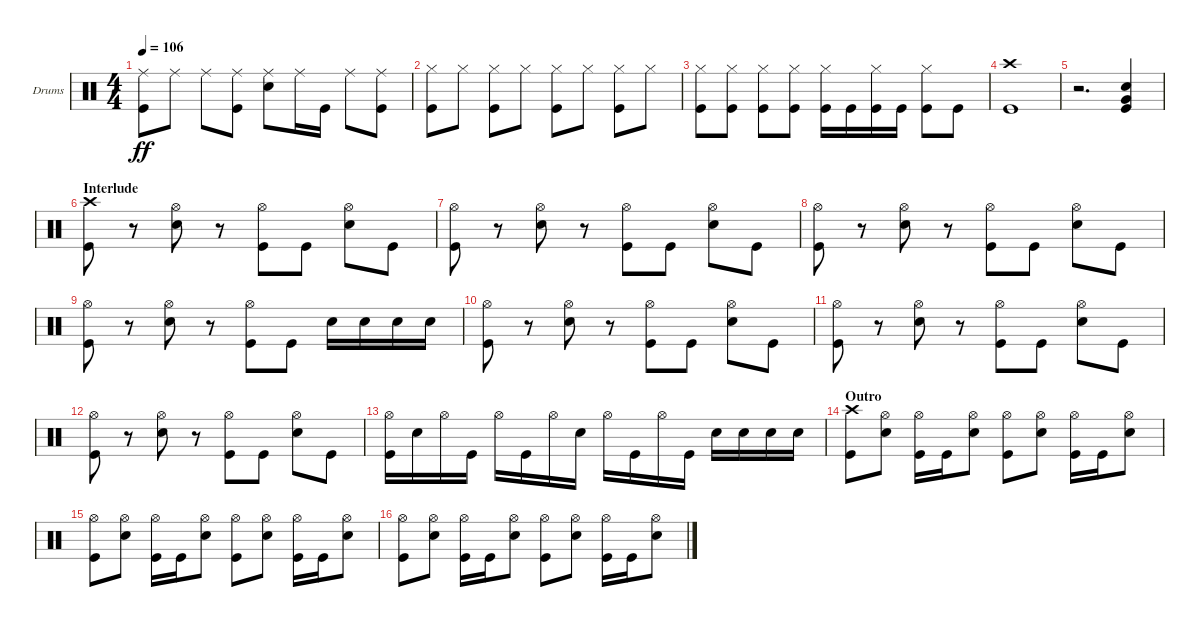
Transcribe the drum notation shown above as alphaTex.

\defaultSystemsLayout 4
\bracketExtendMode groupsimilarinstruments
\firstSystemTrackNameOrientation horizontal
\otherSystemsTrackNameOrientation horizontal
\track ("Drumkit" "Drums") {instrument percussion}
\staff {score}
\articulation defaults
\ts (4 4)
\tempo 106
\clef neutral
\scale
0.333333
\ks c
("Kick (hit)" "Ride (middle)").8{dy ff} "Ride (middle)".8 "Ride (middle)".8 ("Ride (middle)" "Kick (hit)").8 ("Ride (middle)" "Snare (hit) 2").8 "Ride (middle)".16 "Kick (hit)".16 "Ride (middle)".8 ("Kick (hit)" "Ride (middle)").8 |
\scale
0.333333 ("Kick (hit)" "Hi-Hat (closed)").8 "Hi-Hat (closed)".8 ("Kick (hit)" "Hi-Hat (closed)").8 "Hi-Hat (closed)".8 ("Kick (hit)" "Hi-Hat (closed)").8 "Hi-Hat (closed)".8 ("Kick (hit)" "Hi-Hat (closed)").8 "Hi-Hat (closed)".8 |
\scale
0.333333 ("Kick (hit)" "Hi-Hat (closed)").8 ("Hi-Hat (closed)" "Kick (hit)").8 ("Kick (hit)" "Hi-Hat (closed)").8 ("Hi-Hat (closed)" "Kick (hit)").8 ("Kick (hit)" "Hi-Hat (closed)").16 "Kick (hit)".16 ("Kick (hit)" "Hi-Hat (closed)").16 "Kick (hit)".16 ("Kick (hit)" "Hi-Hat (closed)").8 "Kick (hit)".8 |
\scale
0.333333 ("Kick (hit)" "Crash high (hit)").1 |
\scale
0.333333 r.2{d} ("Kick (hit)" "Very Low Tom (hit)" "Snare (hit) 2").4 |
\section ("" "Interlude")
\scale
0.333333 ("Crash high (hit)" "Kick (hit)").8 r.8 ("Snare (hit) 2" "Hi-Hat (open)").8 r.8 ("Kick (hit)" "Hi-Hat (open)").8 "Kick (hit)".8 ("Snare (hit) 2" "Hi-Hat (open)").8 "Kick (hit)".8 |
\scale
0.333333 ("Kick (hit)" "Hi-Hat (open)").8 r.8 ("Snare (hit) 2" "Hi-Hat (open)").8 r.8 ("Kick (hit)" "Hi-Hat (open)").8 "Kick (hit)".8 ("Snare (hit) 2" "Hi-Hat (open)").8 "Kick (hit)".8 |
\scale
0.333333 ("Kick (hit)" "Hi-Hat (open)").8 r.8 ("Snare (hit) 2" "Hi-Hat (open)").8 r.8 ("Kick (hit)" "Hi-Hat (open)").8 "Kick (hit)".8 ("Snare (hit) 2" "Hi-Hat (open)").8 "Kick (hit)".8 |
\scale
0.333333 ("Kick (hit)" "Hi-Hat (open)").8 r.8 ("Snare (hit) 2" "Hi-Hat (open)").8 r.8 ("Kick (hit)" "Hi-Hat (open)").8 "Kick (hit)".8 "Snare (hit) 2".16 "Snare (hit) 2".16 "Snare (hit) 2".16 "Snare (hit) 2".16 |
\scale
0.333333 ("Kick (hit)" "Hi-Hat (open)").8 r.8 ("Snare (hit) 2" "Hi-Hat (open)").8 r.8 ("Kick (hit)" "Hi-Hat (open)").8 "Kick (hit)".8 ("Snare (hit) 2" "Hi-Hat (open)").8 "Kick (hit)".8 |
\scale
0.333333 ("Kick (hit)" "Hi-Hat (open)").8 r.8 ("Snare (hit) 2" "Hi-Hat (open)").8 r.8 ("Kick (hit)" "Hi-Hat (open)").8 "Kick (hit)".8 ("Snare (hit) 2" "Hi-Hat (open)").8 "Kick (hit)".8 |
\scale
0.333333 ("Kick (hit)" "Hi-Hat (open)").8 r.8 ("Snare (hit) 2" "Hi-Hat (open)").8 r.8 ("Kick (hit)" "Hi-Hat (open)").8 "Kick (hit)".8 ("Snare (hit) 2" "Hi-Hat (open)").8 "Kick (hit)".8 |
\scale
0.333333 ("Kick (hit)" "Hi-Hat (open)").16 "Snare (hit) 2".16 "Hi-Hat (open)".16 "Kick (hit)".16 "Hi-Hat (open)".16 "Kick (hit)".16 "Hi-Hat (open)".16 "Snare (hit) 2".16 "Hi-Hat (open)".16 "Kick (hit)".16 "Hi-Hat (open)".16 "Kick (hit)".16 "Snare (hit) 2".16 "Snare (hit) 2".16 "Snare (hit) 2".16 "Snare (hit) 2".16 |
\section ("" "Outro")
\scale
0.333333 ("Crash high (hit)" "Kick (hit)").8 ("Snare (hit) 2" "Hi-Hat (open)").8 ("Kick (hit)" "Hi-Hat (open)").16 "Kick (hit)".16 ("Snare (hit) 2" "Hi-Hat (open)").8 ("Kick (hit)" "Hi-Hat (open)").8 ("Snare (hit) 2" "Hi-Hat (open)").8 ("Kick (hit)" "Hi-Hat (open)").16 "Kick (hit)".16 ("Snare (hit) 2" "Hi-Hat (open)").8 |
\scale
0.333333 ("Kick (hit)" "Hi-Hat (open)").8 ("Snare (hit) 2" "Hi-Hat (open)").8 ("Kick (hit)" "Hi-Hat (open)").16 "Kick (hit)".16 ("Snare (hit) 2" "Hi-Hat (open)").8 ("Kick (hit)" "Hi-Hat (open)").8 ("Snare (hit) 2" "Hi-Hat (open)").8 ("Kick (hit)" "Hi-Hat (open)").16 "Kick (hit)".16 ("Snare (hit) 2" "Hi-Hat (open)").8 |
\scale
0.333333 ("Kick (hit)" "Hi-Hat (open)").8 ("Snare (hit) 2" "Hi-Hat (open)").8 ("Kick (hit)" "Hi-Hat (open)").16 "Kick (hit)".16 ("Snare (hit) 2" "Hi-Hat (open)").8 ("Kick (hit)" "Hi-Hat (open)").8 ("Snare (hit) 2" "Hi-Hat (open)").8 ("Kick (hit)" "Hi-Hat (open)").16 "Kick (hit)".16 ("Snare (hit) 2" "Hi-Hat (open)").8
